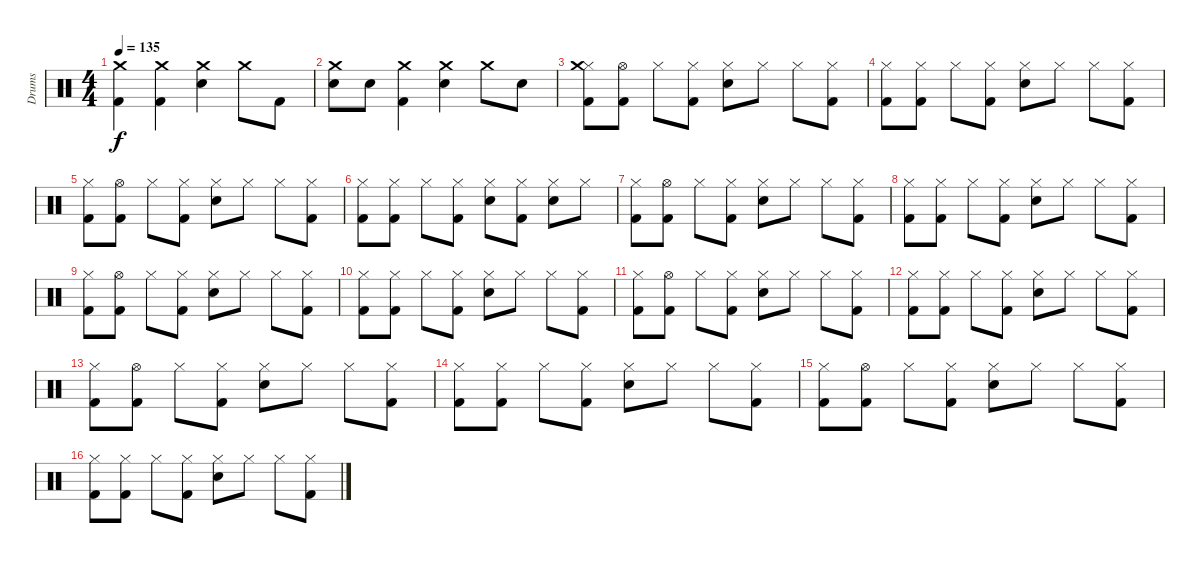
\track ("Drums" "Drums") {instrument percussion}
\staff {score}
\articulation defaults
\ts (4 4)
\tempo 135
\clef neutral
\ks c
("Crash medium (hit)" "Kick (hit) 2").4{dy f} ("Crash medium (hit)" "Kick (hit) 2").4 ("Crash medium (hit)" "Snare (hit) 2").4 "Crash medium (hit)".8 "Kick (hit) 2".8 |
("Crash medium (hit)" "Snare (hit) 2").8 "Snare (hit) 2".8 ("Crash medium (hit)" "Kick (hit) 2").4 ("Crash medium (hit)" "Snare (hit) 2").4 "Crash medium (hit)".8 "Snare (hit) 2".8 |
("Hi-Hat (closed)" "Crash medium (hit)" "Kick (hit) 2").8 ("Hi-Hat (open)" "Kick (hit) 2").8 "Hi-Hat (closed)".8 ("Hi-Hat (closed)" "Kick (hit) 2").8 ("Hi-Hat (closed)" "Snare (hit) 2").8 "Hi-Hat (closed)".8 "Hi-Hat (closed)".8 ("Hi-Hat (closed)" "Kick (hit) 2").8 |
("Hi-Hat (closed)" "Kick (hit) 2").8 ("Hi-Hat (closed)" "Kick (hit) 2").8 "Hi-Hat (closed)".8 ("Hi-Hat (closed)" "Kick (hit) 2").8 ("Hi-Hat (closed)" "Snare (hit) 2").8 "Hi-Hat (closed)".8 "Hi-Hat (closed)".8 ("Hi-Hat (closed)" "Kick (hit) 2").8 |
("Hi-Hat (closed)" "Kick (hit) 2").8 ("Hi-Hat (open)" "Kick (hit) 2").8 "Hi-Hat (closed)".8 ("Hi-Hat (closed)" "Kick (hit) 2").8 ("Hi-Hat (closed)" "Snare (hit) 2").8 "Hi-Hat (closed)".8 "Hi-Hat (closed)".8 ("Hi-Hat (closed)" "Kick (hit) 2").8 |
("Hi-Hat (closed)" "Kick (hit) 2").8 ("Hi-Hat (closed)" "Kick (hit) 2").8 "Hi-Hat (closed)".8 ("Hi-Hat (closed)" "Kick (hit) 2").8 ("Hi-Hat (closed)" "Snare (hit) 2").8 ("Hi-Hat (closed)" "Kick (hit) 2").8 ("Hi-Hat (closed)" "Snare (hit) 2").8 "Hi-Hat (closed)".8 |
("Hi-Hat (closed)" "Kick (hit) 2").8 ("Hi-Hat (open)" "Kick (hit) 2").8 "Hi-Hat (closed)".8 ("Hi-Hat (closed)" "Kick (hit) 2").8 ("Hi-Hat (closed)" "Snare (hit) 2").8 "Hi-Hat (closed)".8 "Hi-Hat (closed)".8 ("Hi-Hat (closed)" "Kick (hit) 2").8 |
("Hi-Hat (closed)" "Kick (hit) 2").8 ("Hi-Hat (closed)" "Kick (hit) 2").8 "Hi-Hat (closed)".8 ("Hi-Hat (closed)" "Kick (hit) 2").8 ("Hi-Hat (closed)" "Snare (hit) 2").8 "Hi-Hat (closed)".8 "Hi-Hat (closed)".8 ("Hi-Hat (closed)" "Kick (hit) 2").8 |
("Hi-Hat (closed)" "Kick (hit) 2").8 ("Hi-Hat (open)" "Kick (hit) 2").8 "Hi-Hat (closed)".8 ("Hi-Hat (closed)" "Kick (hit) 2").8 ("Hi-Hat (closed)" "Snare (hit) 2").8 "Hi-Hat (closed)".8 "Hi-Hat (closed)".8 ("Hi-Hat (closed)" "Kick (hit) 2").8 |
("Hi-Hat (closed)" "Kick (hit) 2").8 ("Hi-Hat (closed)" "Kick (hit) 2").8 "Hi-Hat (closed)".8 ("Hi-Hat (closed)" "Kick (hit) 2").8 ("Hi-Hat (closed)" "Snare (hit) 2").8 "Hi-Hat (closed)".8 "Hi-Hat (closed)".8 ("Hi-Hat (closed)" "Kick (hit) 2").8 |
("Hi-Hat (closed)" "Kick (hit) 2").8 ("Hi-Hat (open)" "Kick (hit) 2").8 "Hi-Hat (closed)".8 ("Hi-Hat (closed)" "Kick (hit) 2").8 ("Hi-Hat (closed)" "Snare (hit) 2").8 "Hi-Hat (closed)".8 "Hi-Hat (closed)".8 ("Hi-Hat (closed)" "Kick (hit) 2").8 |
("Hi-Hat (closed)" "Kick (hit) 2").8 ("Hi-Hat (closed)" "Kick (hit) 2").8 "Hi-Hat (closed)".8 ("Hi-Hat (closed)" "Kick (hit) 2").8 ("Hi-Hat (closed)" "Snare (hit) 2").8 "Hi-Hat (closed)".8 "Hi-Hat (closed)".8 ("Hi-Hat (closed)" "Kick (hit) 2").8 |
("Hi-Hat (closed)" "Kick (hit) 2").8 ("Hi-Hat (open)" "Kick (hit) 2").8 "Hi-Hat (closed)".8 ("Hi-Hat (closed)" "Kick (hit) 2").8 ("Hi-Hat (closed)" "Snare (hit) 2").8 "Hi-Hat (closed)".8 "Hi-Hat (closed)".8 ("Hi-Hat (closed)" "Kick (hit) 2").8 |
("Hi-Hat (closed)" "Kick (hit) 2").8 ("Hi-Hat (closed)" "Kick (hit) 2").8 "Hi-Hat (closed)".8 ("Hi-Hat (closed)" "Kick (hit) 2").8 ("Hi-Hat (closed)" "Snare (hit) 2").8 "Hi-Hat (closed)".8 "Hi-Hat (closed)".8 ("Hi-Hat (closed)" "Kick (hit) 2").8 |
("Hi-Hat (closed)" "Kick (hit) 2").8 ("Hi-Hat (open)" "Kick (hit) 2").8 "Hi-Hat (closed)".8 ("Hi-Hat (closed)" "Kick (hit) 2").8 ("Hi-Hat (closed)" "Snare (hit) 2").8 "Hi-Hat (closed)".8 "Hi-Hat (closed)".8 ("Hi-Hat (closed)" "Kick (hit) 2").8 |
("Hi-Hat (closed)" "Kick (hit) 2").8 ("Hi-Hat (closed)" "Kick (hit) 2").8 "Hi-Hat (closed)".8 ("Hi-Hat (closed)" "Kick (hit) 2").8 ("Hi-Hat (closed)" "Snare (hit) 2").8 "Hi-Hat (closed)".8 "Hi-Hat (closed)".8 ("Hi-Hat (closed)" "Kick (hit) 2").8
